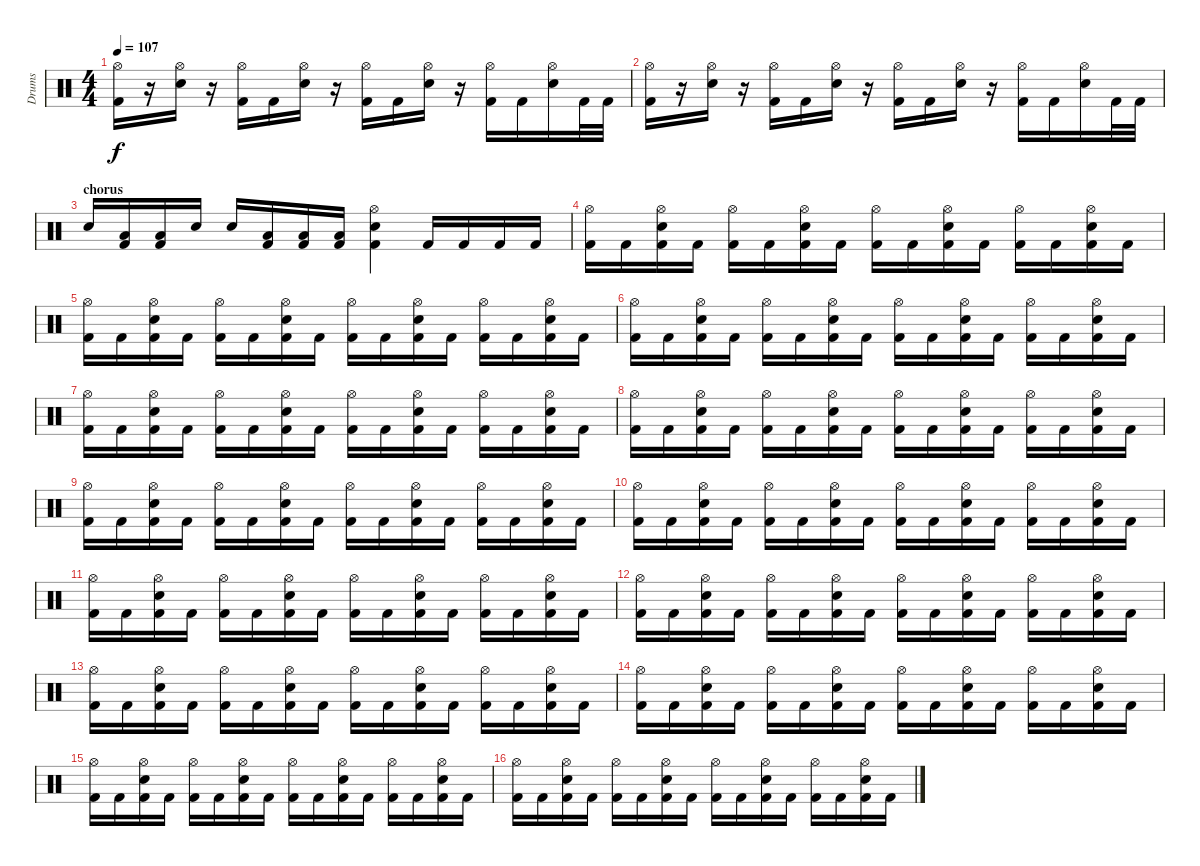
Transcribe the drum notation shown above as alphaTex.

\track ("Drums" "Drums") {instrument percussion}
\staff {score}
\articulation defaults
\ts (4 4)
\tempo 107
\clef neutral
\ks c
("Hi-Hat (open)" "Kick (hit) 2").16{dy f} r.16 ("Hi-Hat (open)" "Snare (hit) 2").16 r.16 ("Hi-Hat (open)" "Kick (hit) 2").16 "Kick (hit) 2".16 ("Hi-Hat (open)" "Snare (hit) 2").16 r.16 ("Hi-Hat (open)" "Kick (hit) 2").16 "Kick (hit) 2".16 ("Hi-Hat (open)" "Snare (hit) 2").16 r.16 ("Hi-Hat (open)" "Kick (hit) 2").16 "Kick (hit) 2".16 ("Hi-Hat (open)" "Snare (hit) 2").16 "Kick (hit) 2".32 "Kick (hit) 2".32 |
("Hi-Hat (open)" "Kick (hit) 2").16 r.16 ("Hi-Hat (open)" "Snare (hit) 2").16 r.16 ("Hi-Hat (open)" "Kick (hit) 2").16 "Kick (hit) 2".16 ("Hi-Hat (open)" "Snare (hit) 2").16 r.16 ("Hi-Hat (open)" "Kick (hit) 2").16 "Kick (hit) 2".16 ("Hi-Hat (open)" "Snare (hit) 2").16 r.16 ("Hi-Hat (open)" "Kick (hit) 2").16 "Kick (hit) 2".16 ("Hi-Hat (open)" "Snare (hit) 2").16 "Kick (hit) 2".32 "Kick (hit) 2".32 |
\section ("" "chorus")
"Snare (hit) 2".16 ("Low Tom (hit)" "Kick (hit) 2").16 ("Low Tom (hit)" "Kick (hit) 2").16 "Snare (hit) 2".16 "Snare (hit) 2".16 ("Low Tom (hit)" "Kick (hit) 2").16 ("Low Tom (hit)" "Kick (hit) 2").16 ("Low Tom (hit)" "Kick (hit) 2").16 ("Hi-Hat (open)" "Snare (hit) 2" "Kick (hit) 2").4 "Kick (hit) 2".16 "Kick (hit) 2".16 "Kick (hit) 2".16 "Kick (hit) 2".16 |
("Hi-Hat (open)" "Kick (hit) 2").16 "Kick (hit) 2".16 ("Hi-Hat (open)" "Snare (hit) 2" "Kick (hit) 2").16 "Kick (hit) 2".16 ("Hi-Hat (open)" "Kick (hit) 2").16 "Kick (hit) 2".16 ("Hi-Hat (open)" "Snare (hit) 2" "Kick (hit) 2").16 "Kick (hit) 2".16 ("Hi-Hat (open)" "Kick (hit) 2").16 "Kick (hit) 2".16 ("Hi-Hat (open)" "Snare (hit) 2" "Kick (hit) 2").16 "Kick (hit) 2".16 ("Hi-Hat (open)" "Kick (hit) 2").16 "Kick (hit) 2".16 ("Hi-Hat (open)" "Snare (hit) 2" "Kick (hit) 2").16 "Kick (hit) 2".16 |
("Hi-Hat (open)" "Kick (hit) 2").16 "Kick (hit) 2".16 ("Hi-Hat (open)" "Snare (hit) 2" "Kick (hit) 2").16 "Kick (hit) 2".16 ("Hi-Hat (open)" "Kick (hit) 2").16 "Kick (hit) 2".16 ("Hi-Hat (open)" "Snare (hit) 2" "Kick (hit) 2").16 "Kick (hit) 2".16 ("Hi-Hat (open)" "Kick (hit) 2").16 "Kick (hit) 2".16 ("Hi-Hat (open)" "Snare (hit) 2" "Kick (hit) 2").16 "Kick (hit) 2".16 ("Hi-Hat (open)" "Kick (hit) 2").16 "Kick (hit) 2".16 ("Hi-Hat (open)" "Snare (hit) 2" "Kick (hit) 2").16 "Kick (hit) 2".16 |
("Hi-Hat (open)" "Kick (hit) 2").16 "Kick (hit) 2".16 ("Hi-Hat (open)" "Snare (hit) 2" "Kick (hit) 2").16 "Kick (hit) 2".16 ("Hi-Hat (open)" "Kick (hit) 2").16 "Kick (hit) 2".16 ("Hi-Hat (open)" "Snare (hit) 2" "Kick (hit) 2").16 "Kick (hit) 2".16 ("Hi-Hat (open)" "Kick (hit) 2").16 "Kick (hit) 2".16 ("Hi-Hat (open)" "Snare (hit) 2" "Kick (hit) 2").16 "Kick (hit) 2".16 ("Hi-Hat (open)" "Kick (hit) 2").16 "Kick (hit) 2".16 ("Hi-Hat (open)" "Snare (hit) 2" "Kick (hit) 2").16 "Kick (hit) 2".16 |
("Hi-Hat (open)" "Kick (hit) 2").16 "Kick (hit) 2".16 ("Hi-Hat (open)" "Snare (hit) 2" "Kick (hit) 2").16 "Kick (hit) 2".16 ("Hi-Hat (open)" "Kick (hit) 2").16 "Kick (hit) 2".16 ("Hi-Hat (open)" "Snare (hit) 2" "Kick (hit) 2").16 "Kick (hit) 2".16 ("Hi-Hat (open)" "Kick (hit) 2").16 "Kick (hit) 2".16 ("Hi-Hat (open)" "Snare (hit) 2" "Kick (hit) 2").16 "Kick (hit) 2".16 ("Hi-Hat (open)" "Kick (hit) 2").16 "Kick (hit) 2".16 ("Hi-Hat (open)" "Snare (hit) 2" "Kick (hit) 2").16 "Kick (hit) 2".16 |
("Hi-Hat (open)" "Kick (hit) 2").16 "Kick (hit) 2".16 ("Hi-Hat (open)" "Snare (hit) 2" "Kick (hit) 2").16 "Kick (hit) 2".16 ("Hi-Hat (open)" "Kick (hit) 2").16 "Kick (hit) 2".16 ("Hi-Hat (open)" "Snare (hit) 2" "Kick (hit) 2").16 "Kick (hit) 2".16 ("Hi-Hat (open)" "Kick (hit) 2").16 "Kick (hit) 2".16 ("Hi-Hat (open)" "Snare (hit) 2" "Kick (hit) 2").16 "Kick (hit) 2".16 ("Hi-Hat (open)" "Kick (hit) 2").16 "Kick (hit) 2".16 ("Hi-Hat (open)" "Snare (hit) 2" "Kick (hit) 2").16 "Kick (hit) 2".16 |
("Hi-Hat (open)" "Kick (hit) 2").16 "Kick (hit) 2".16 ("Hi-Hat (open)" "Snare (hit) 2" "Kick (hit) 2").16 "Kick (hit) 2".16 ("Hi-Hat (open)" "Kick (hit) 2").16 "Kick (hit) 2".16 ("Hi-Hat (open)" "Snare (hit) 2" "Kick (hit) 2").16 "Kick (hit) 2".16 ("Hi-Hat (open)" "Kick (hit) 2").16 "Kick (hit) 2".16 ("Hi-Hat (open)" "Snare (hit) 2" "Kick (hit) 2").16 "Kick (hit) 2".16 ("Hi-Hat (open)" "Kick (hit) 2").16 "Kick (hit) 2".16 ("Hi-Hat (open)" "Snare (hit) 2" "Kick (hit) 2").16 "Kick (hit) 2".16 |
("Hi-Hat (open)" "Kick (hit) 2").16 "Kick (hit) 2".16 ("Hi-Hat (open)" "Snare (hit) 2" "Kick (hit) 2").16 "Kick (hit) 2".16 ("Hi-Hat (open)" "Kick (hit) 2").16 "Kick (hit) 2".16 ("Hi-Hat (open)" "Snare (hit) 2" "Kick (hit) 2").16 "Kick (hit) 2".16 ("Hi-Hat (open)" "Kick (hit) 2").16 "Kick (hit) 2".16 ("Hi-Hat (open)" "Snare (hit) 2" "Kick (hit) 2").16 "Kick (hit) 2".16 ("Hi-Hat (open)" "Kick (hit) 2").16 "Kick (hit) 2".16 ("Hi-Hat (open)" "Snare (hit) 2" "Kick (hit) 2").16 "Kick (hit) 2".16 |
("Hi-Hat (open)" "Kick (hit) 2").16 "Kick (hit) 2".16 ("Hi-Hat (open)" "Snare (hit) 2" "Kick (hit) 2").16 "Kick (hit) 2".16 ("Hi-Hat (open)" "Kick (hit) 2").16 "Kick (hit) 2".16 ("Hi-Hat (open)" "Snare (hit) 2" "Kick (hit) 2").16 "Kick (hit) 2".16 ("Hi-Hat (open)" "Kick (hit) 2").16 "Kick (hit) 2".16 ("Hi-Hat (open)" "Snare (hit) 2" "Kick (hit) 2").16 "Kick (hit) 2".16 ("Hi-Hat (open)" "Kick (hit) 2").16 "Kick (hit) 2".16 ("Hi-Hat (open)" "Snare (hit) 2" "Kick (hit) 2").16 "Kick (hit) 2".16 |
("Hi-Hat (open)" "Kick (hit) 2").16 "Kick (hit) 2".16 ("Hi-Hat (open)" "Snare (hit) 2" "Kick (hit) 2").16 "Kick (hit) 2".16 ("Hi-Hat (open)" "Kick (hit) 2").16 "Kick (hit) 2".16 ("Hi-Hat (open)" "Snare (hit) 2" "Kick (hit) 2").16 "Kick (hit) 2".16 ("Hi-Hat (open)" "Kick (hit) 2").16 "Kick (hit) 2".16 ("Hi-Hat (open)" "Snare (hit) 2" "Kick (hit) 2").16 "Kick (hit) 2".16 ("Hi-Hat (open)" "Kick (hit) 2").16 "Kick (hit) 2".16 ("Hi-Hat (open)" "Snare (hit) 2" "Kick (hit) 2").16 "Kick (hit) 2".16 |
("Hi-Hat (open)" "Kick (hit) 2").16 "Kick (hit) 2".16 ("Hi-Hat (open)" "Snare (hit) 2" "Kick (hit) 2").16 "Kick (hit) 2".16 ("Hi-Hat (open)" "Kick (hit) 2").16 "Kick (hit) 2".16 ("Hi-Hat (open)" "Snare (hit) 2" "Kick (hit) 2").16 "Kick (hit) 2".16 ("Hi-Hat (open)" "Kick (hit) 2").16 "Kick (hit) 2".16 ("Hi-Hat (open)" "Snare (hit) 2" "Kick (hit) 2").16 "Kick (hit) 2".16 ("Hi-Hat (open)" "Kick (hit) 2").16 "Kick (hit) 2".16 ("Hi-Hat (open)" "Snare (hit) 2" "Kick (hit) 2").16 "Kick (hit) 2".16 |
("Hi-Hat (open)" "Kick (hit) 2").16 "Kick (hit) 2".16 ("Hi-Hat (open)" "Snare (hit) 2" "Kick (hit) 2").16 "Kick (hit) 2".16 ("Hi-Hat (open)" "Kick (hit) 2").16 "Kick (hit) 2".16 ("Hi-Hat (open)" "Snare (hit) 2" "Kick (hit) 2").16 "Kick (hit) 2".16 ("Hi-Hat (open)" "Kick (hit) 2").16 "Kick (hit) 2".16 ("Hi-Hat (open)" "Snare (hit) 2" "Kick (hit) 2").16 "Kick (hit) 2".16 ("Hi-Hat (open)" "Kick (hit) 2").16 "Kick (hit) 2".16 ("Hi-Hat (open)" "Snare (hit) 2" "Kick (hit) 2").16 "Kick (hit) 2".16 |
("Hi-Hat (open)" "Kick (hit) 2").16 "Kick (hit) 2".16 ("Hi-Hat (open)" "Snare (hit) 2" "Kick (hit) 2").16 "Kick (hit) 2".16 ("Hi-Hat (open)" "Kick (hit) 2").16 "Kick (hit) 2".16 ("Hi-Hat (open)" "Snare (hit) 2" "Kick (hit) 2").16 "Kick (hit) 2".16 ("Hi-Hat (open)" "Kick (hit) 2").16 "Kick (hit) 2".16 ("Hi-Hat (open)" "Snare (hit) 2" "Kick (hit) 2").16 "Kick (hit) 2".16 ("Hi-Hat (open)" "Kick (hit) 2").16 "Kick (hit) 2".16 ("Hi-Hat (open)" "Snare (hit) 2" "Kick (hit) 2").16 "Kick (hit) 2".16 |
("Hi-Hat (open)" "Kick (hit) 2").16 "Kick (hit) 2".16 ("Hi-Hat (open)" "Snare (hit) 2" "Kick (hit) 2").16 "Kick (hit) 2".16 ("Hi-Hat (open)" "Kick (hit) 2").16 "Kick (hit) 2".16 ("Hi-Hat (open)" "Snare (hit) 2" "Kick (hit) 2").16 "Kick (hit) 2".16 ("Hi-Hat (open)" "Kick (hit) 2").16 "Kick (hit) 2".16 ("Hi-Hat (open)" "Snare (hit) 2" "Kick (hit) 2").16 "Kick (hit) 2".16 ("Hi-Hat (open)" "Kick (hit) 2").16 "Kick (hit) 2".16 ("Hi-Hat (open)" "Snare (hit) 2" "Kick (hit) 2").16 "Kick (hit) 2".16
